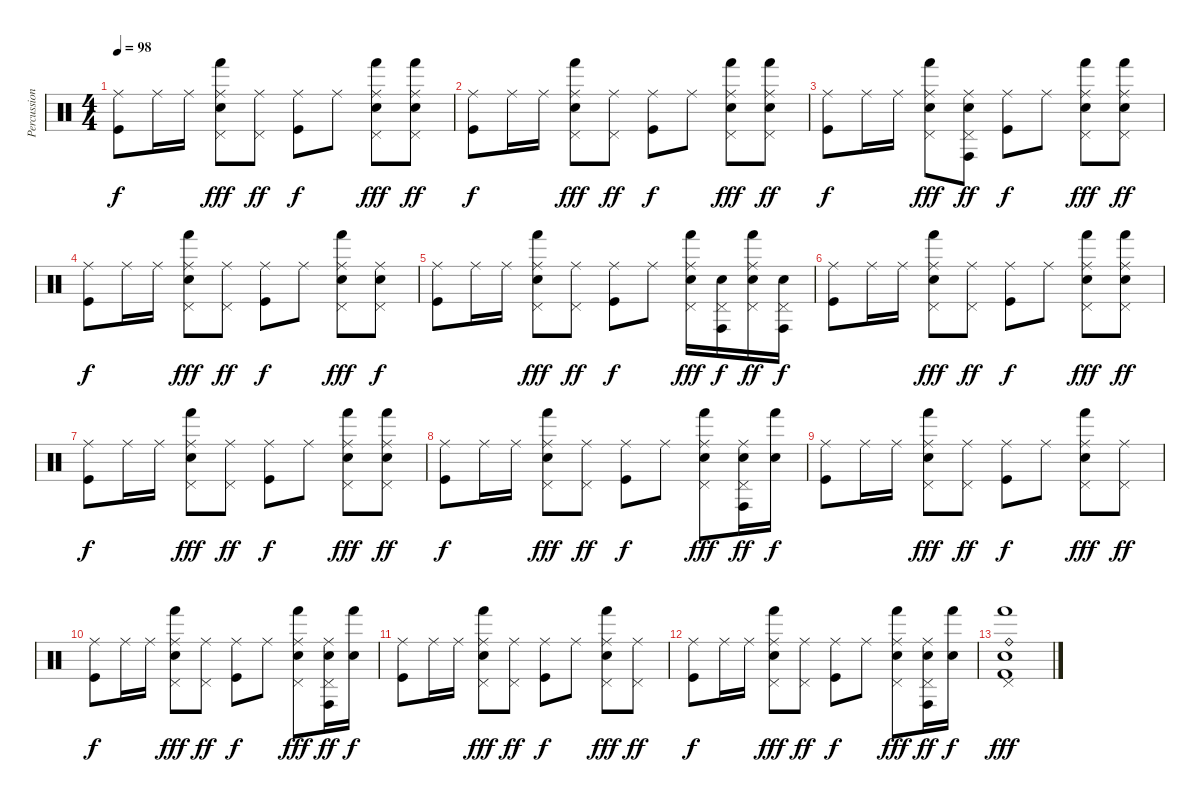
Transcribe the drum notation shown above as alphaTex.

\track ("Percussion" "Percussion") {instrument percussion}
\staff {score}
\articulation defaults
\ts (4 4)
\tempo 98
\clef neutral
\ks c
("Ride (middle)" "Kick (hit)").8{dy f} "Ride (middle)".16 "Ride (middle)".16 ("Ride (middle)" "Pedal Hi-Hat (hit)" "Electric Snare (hit)" "Hand (hit)").8{dy fff} ("Ride (middle)" "Pedal Hi-Hat (hit)").8{dy ff} ("Ride (middle)" "Kick (hit)").8{dy f} "Ride (middle)".8 ("Ride (middle)" "Pedal Hi-Hat (hit)" "Electric Snare (hit)" "Hand (hit)").8{dy fff} ("Ride (middle)" "Pedal Hi-Hat (hit)" "Electric Snare (hit)" "Hand (hit)").8{dy ff} |
("Ride (middle)" "Kick (hit)").8{dy f} "Ride (middle)".16 "Ride (middle)".16 ("Ride (middle)" "Pedal Hi-Hat (hit)" "Electric Snare (hit)" "Hand (hit)").8{dy fff} ("Ride (middle)" "Pedal Hi-Hat (hit)").8{dy ff} ("Ride (middle)" "Kick (hit)").8{dy f} "Ride (middle)".8 ("Ride (middle)" "Pedal Hi-Hat (hit)" "Electric Snare (hit)" "Hand (hit)").8{dy fff} ("Ride (middle)" "Pedal Hi-Hat (hit)" "Electric Snare (hit)" "Hand (hit)").8{dy ff} |
("Ride (middle)" "Kick (hit)").8{dy f} "Ride (middle)".16 "Ride (middle)".16 ("Ride (middle)" "Pedal Hi-Hat (hit)" "Electric Snare (hit)" "Hand (hit)").8{dy fff} ("Ride (middle)" "Pedal Hi-Hat (hit)" "Electric Snare (hit)" "Conga high (hit)").8{dy ff} ("Ride (middle)" "Kick (hit)").8{dy f} "Ride (middle)".8 ("Ride (middle)" "Pedal Hi-Hat (hit)" "Electric Snare (hit)" "Hand (hit)").8{dy fff} ("Ride (middle)" "Pedal Hi-Hat (hit)" "Electric Snare (hit)" "Hand (hit)").8{dy ff} |
("Ride (middle)" "Kick (hit)").8{dy f} "Ride (middle)".16 "Ride (middle)".16 ("Ride (middle)" "Pedal Hi-Hat (hit)" "Electric Snare (hit)" "Hand (hit)").8{dy fff} ("Ride (middle)" "Pedal Hi-Hat (hit)").8{dy ff} ("Ride (middle)" "Kick (hit)").8{dy f} "Ride (middle)".8 ("Ride (middle)" "Pedal Hi-Hat (hit)" "Electric Snare (hit)" "Hand (hit)").8{dy fff} ("Ride (middle)" "Pedal Hi-Hat (hit)" "Electric Snare (hit)").8{dy f} |
("Ride (middle)" "Kick (hit)").8 "Ride (middle)".16 "Ride (middle)".16 ("Ride (middle)" "Pedal Hi-Hat (hit)" "Electric Snare (hit)" "Hand (hit)").8{dy fff} ("Ride (middle)" "Pedal Hi-Hat (hit)").8{dy ff} ("Ride (middle)" "Kick (hit)").8{dy f} "Ride (middle)".8 ("Ride (middle)" "Pedal Hi-Hat (hit)" "Electric Snare (hit)" "Hand (hit)").16{dy fff} ("Pedal Hi-Hat (hit)" "Electric Snare (hit)" "Conga high (hit)").16{dy f} ("Ride (middle)" "Pedal Hi-Hat (hit)" "Electric Snare (hit)" "Hand (hit)").16{dy ff} ("Pedal Hi-Hat (hit)" "Electric Snare (hit)" "Conga high (hit)").16{dy f} |
("Ride (middle)" "Kick (hit)").8 "Ride (middle)".16 "Ride (middle)".16 ("Ride (middle)" "Pedal Hi-Hat (hit)" "Electric Snare (hit)" "Hand (hit)").8{dy fff} ("Ride (middle)" "Pedal Hi-Hat (hit)").8{dy ff} ("Ride (middle)" "Kick (hit)").8{dy f} "Ride (middle)".8 ("Ride (middle)" "Pedal Hi-Hat (hit)" "Electric Snare (hit)" "Hand (hit)").8{dy fff} ("Ride (middle)" "Pedal Hi-Hat (hit)" "Electric Snare (hit)" "Hand (hit)").8{dy ff} |
("Ride (middle)" "Kick (hit)").8{dy f} "Ride (middle)".16 "Ride (middle)".16 ("Ride (middle)" "Pedal Hi-Hat (hit)" "Electric Snare (hit)" "Hand (hit)").8{dy fff} ("Ride (middle)" "Pedal Hi-Hat (hit)").8{dy ff} ("Ride (middle)" "Kick (hit)").8{dy f} "Ride (middle)".8 ("Ride (middle)" "Pedal Hi-Hat (hit)" "Electric Snare (hit)" "Hand (hit)").8{dy fff} ("Ride (middle)" "Pedal Hi-Hat (hit)" "Electric Snare (hit)" "Hand (hit)").8{dy ff} |
("Ride (middle)" "Kick (hit)").8{dy f} "Ride (middle)".16 "Ride (middle)".16 ("Ride (middle)" "Pedal Hi-Hat (hit)" "Electric Snare (hit)" "Hand (hit)").8{dy fff} ("Ride (middle)" "Pedal Hi-Hat (hit)").8{dy ff} ("Ride (middle)" "Kick (hit)").8{dy f} "Ride (middle)".8 ("Ride (middle)" "Pedal Hi-Hat (hit)" "Electric Snare (hit)" "Hand (hit)").8{dy fff} ("Ride (middle)" "Pedal Hi-Hat (hit)" "Electric Snare (hit)" "Conga high (hit)").16{dy ff} ("Electric Snare (hit)" "Hand (hit)").16{dy f} |
("Ride (middle)" "Kick (hit)").8 "Ride (middle)".16 "Ride (middle)".16 ("Ride (middle)" "Pedal Hi-Hat (hit)" "Electric Snare (hit)" "Hand (hit)").8{dy fff} ("Ride (middle)" "Pedal Hi-Hat (hit)").8{dy ff} ("Ride (middle)" "Kick (hit)").8{dy f} "Ride (middle)".8 ("Ride (middle)" "Pedal Hi-Hat (hit)" "Electric Snare (hit)" "Hand (hit)").8{dy fff} ("Ride (middle)" "Pedal Hi-Hat (hit)").8{dy ff} |
("Ride (middle)" "Kick (hit)").8{dy f} "Ride (middle)".16 "Ride (middle)".16 ("Ride (middle)" "Pedal Hi-Hat (hit)" "Electric Snare (hit)" "Hand (hit)").8{dy fff} ("Ride (middle)" "Pedal Hi-Hat (hit)").8{dy ff} ("Ride (middle)" "Kick (hit)").8{dy f} "Ride (middle)".8 ("Ride (middle)" "Pedal Hi-Hat (hit)" "Electric Snare (hit)" "Hand (hit)").8{dy fff} ("Ride (middle)" "Pedal Hi-Hat (hit)" "Electric Snare (hit)" "Conga high (hit)").16{dy ff} ("Electric Snare (hit)" "Hand (hit)").16{dy f} |
("Ride (middle)" "Kick (hit)").8 "Ride (middle)".16 "Ride (middle)".16 ("Ride (middle)" "Pedal Hi-Hat (hit)" "Electric Snare (hit)" "Hand (hit)").8{dy fff} ("Ride (middle)" "Pedal Hi-Hat (hit)").8{dy ff} ("Ride (middle)" "Kick (hit)").8{dy f} "Ride (middle)".8 ("Ride (middle)" "Pedal Hi-Hat (hit)" "Electric Snare (hit)" "Hand (hit)").8{dy fff} ("Ride (middle)" "Pedal Hi-Hat (hit)").8{dy ff} |
("Ride (middle)" "Kick (hit)").8{dy f} "Ride (middle)".16 "Ride (middle)".16 ("Ride (middle)" "Pedal Hi-Hat (hit)" "Electric Snare (hit)" "Hand (hit)").8{dy fff} ("Ride (middle)" "Pedal Hi-Hat (hit)").8{dy ff} ("Ride (middle)" "Kick (hit)").8{dy f} "Ride (middle)".8 ("Ride (middle)" "Pedal Hi-Hat (hit)" "Electric Snare (hit)" "Hand (hit)").8{dy fff} ("Ride (middle)" "Pedal Hi-Hat (hit)" "Electric Snare (hit)" "Conga high (hit)").16{dy ff} ("Electric Snare (hit)" "Hand (hit)").16{dy f} |
("Ride (bell)" "Pedal Hi-Hat (hit)" "Electric Snare (hit)" "Hand (hit)" "Kick (hit) 2").1{dy fff}
